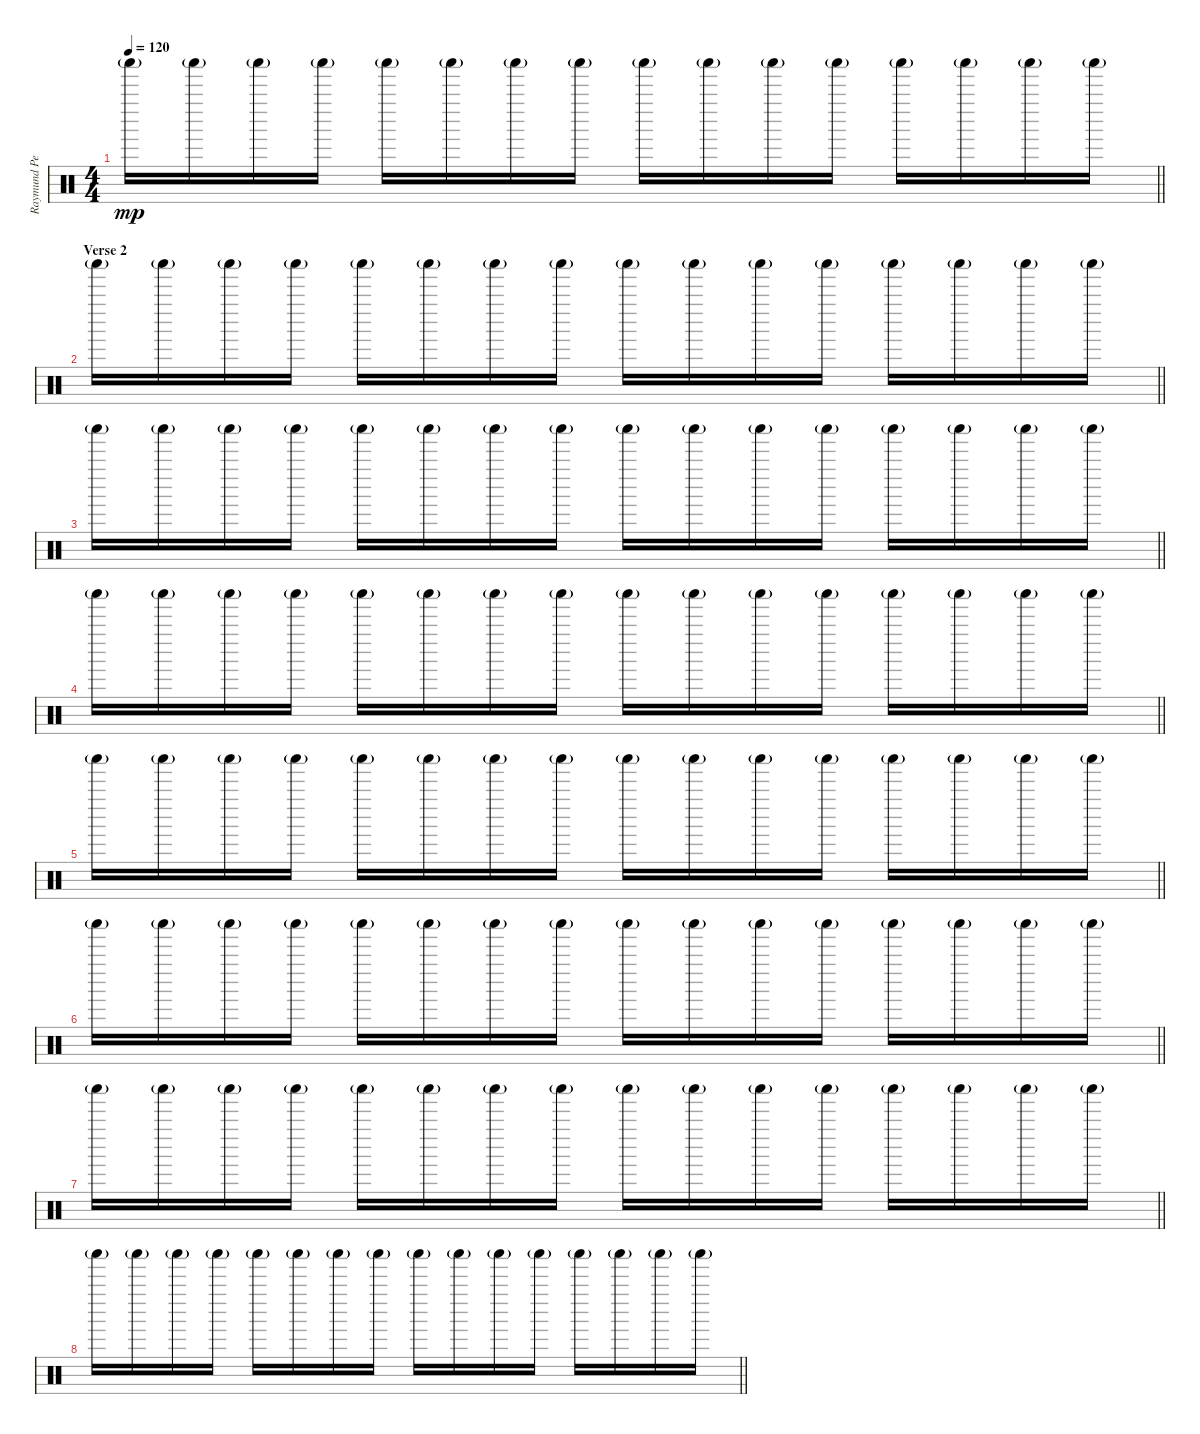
\track ("Raymund Percussion" "Raymund Pe") {instrument percussion}
\staff {score}
\articulation defaults
\ts (4 4)
\tempo 120
\clef neutral
\barLineRight lightlight
\ks c "Shaker (hit)"{g}.16{dy mp} "Shaker (hit)"{g}.16 "Shaker (hit)"{g}.16 "Shaker (hit)"{g}.16 "Shaker (hit)"{g}.16 "Shaker (hit)"{g}.16 "Shaker (hit)"{g}.16 "Shaker (hit)"{g}.16 "Shaker (hit)"{g}.16 "Shaker (hit)"{g}.16 "Shaker (hit)"{g}.16 "Shaker (hit)"{g}.16 "Shaker (hit)"{g}.16 "Shaker (hit)"{g}.16 "Shaker (hit)"{g}.16 "Shaker (hit)"{g}.16
|
\section ("" "Verse 2")
\barLineRight lightlight "Shaker (hit)"{g}.16 "Shaker (hit)"{g}.16 "Shaker (hit)"{g}.16 "Shaker (hit)"{g}.16 "Shaker (hit)"{g}.16 "Shaker (hit)"{g}.16 "Shaker (hit)"{g}.16 "Shaker (hit)"{g}.16 "Shaker (hit)"{g}.16 "Shaker (hit)"{g}.16 "Shaker (hit)"{g}.16 "Shaker (hit)"{g}.16 "Shaker (hit)"{g}.16 "Shaker (hit)"{g}.16 "Shaker (hit)"{g}.16 "Shaker (hit)"{g}.16
|
\barLineRight lightlight "Shaker (hit)"{g}.16 "Shaker (hit)"{g}.16 "Shaker (hit)"{g}.16 "Shaker (hit)"{g}.16 "Shaker (hit)"{g}.16 "Shaker (hit)"{g}.16 "Shaker (hit)"{g}.16 "Shaker (hit)"{g}.16 "Shaker (hit)"{g}.16 "Shaker (hit)"{g}.16 "Shaker (hit)"{g}.16 "Shaker (hit)"{g}.16 "Shaker (hit)"{g}.16 "Shaker (hit)"{g}.16 "Shaker (hit)"{g}.16 "Shaker (hit)"{g}.16
|
\barLineRight lightlight "Shaker (hit)"{g}.16 "Shaker (hit)"{g}.16 "Shaker (hit)"{g}.16 "Shaker (hit)"{g}.16 "Shaker (hit)"{g}.16 "Shaker (hit)"{g}.16 "Shaker (hit)"{g}.16 "Shaker (hit)"{g}.16 "Shaker (hit)"{g}.16 "Shaker (hit)"{g}.16 "Shaker (hit)"{g}.16 "Shaker (hit)"{g}.16 "Shaker (hit)"{g}.16 "Shaker (hit)"{g}.16 "Shaker (hit)"{g}.16 "Shaker (hit)"{g}.16
|
\barLineRight lightlight "Shaker (hit)"{g}.16 "Shaker (hit)"{g}.16 "Shaker (hit)"{g}.16 "Shaker (hit)"{g}.16 "Shaker (hit)"{g}.16 "Shaker (hit)"{g}.16 "Shaker (hit)"{g}.16 "Shaker (hit)"{g}.16 "Shaker (hit)"{g}.16 "Shaker (hit)"{g}.16 "Shaker (hit)"{g}.16 "Shaker (hit)"{g}.16 "Shaker (hit)"{g}.16 "Shaker (hit)"{g}.16 "Shaker (hit)"{g}.16 "Shaker (hit)"{g}.16
|
\barLineRight lightlight "Shaker (hit)"{g}.16 "Shaker (hit)"{g}.16 "Shaker (hit)"{g}.16 "Shaker (hit)"{g}.16 "Shaker (hit)"{g}.16 "Shaker (hit)"{g}.16 "Shaker (hit)"{g}.16 "Shaker (hit)"{g}.16 "Shaker (hit)"{g}.16 "Shaker (hit)"{g}.16 "Shaker (hit)"{g}.16 "Shaker (hit)"{g}.16 "Shaker (hit)"{g}.16 "Shaker (hit)"{g}.16 "Shaker (hit)"{g}.16 "Shaker (hit)"{g}.16
|
\barLineRight lightlight "Shaker (hit)"{g}.16 "Shaker (hit)"{g}.16 "Shaker (hit)"{g}.16 "Shaker (hit)"{g}.16 "Shaker (hit)"{g}.16 "Shaker (hit)"{g}.16 "Shaker (hit)"{g}.16 "Shaker (hit)"{g}.16 "Shaker (hit)"{g}.16 "Shaker (hit)"{g}.16 "Shaker (hit)"{g}.16 "Shaker (hit)"{g}.16 "Shaker (hit)"{g}.16 "Shaker (hit)"{g}.16 "Shaker (hit)"{g}.16 "Shaker (hit)"{g}.16
|
\barLineRight lightlight "Shaker (hit)"{g}.16 "Shaker (hit)"{g}.16 "Shaker (hit)"{g}.16 "Shaker (hit)"{g}.16 "Shaker (hit)"{g}.16 "Shaker (hit)"{g}.16 "Shaker (hit)"{g}.16 "Shaker (hit)"{g}.16 "Shaker (hit)"{g}.16 "Shaker (hit)"{g}.16 "Shaker (hit)"{g}.16 "Shaker (hit)"{g}.16 "Shaker (hit)"{g}.16 "Shaker (hit)"{g}.16 "Shaker (hit)"{g}.16 "Shaker (hit)"{g}.16
